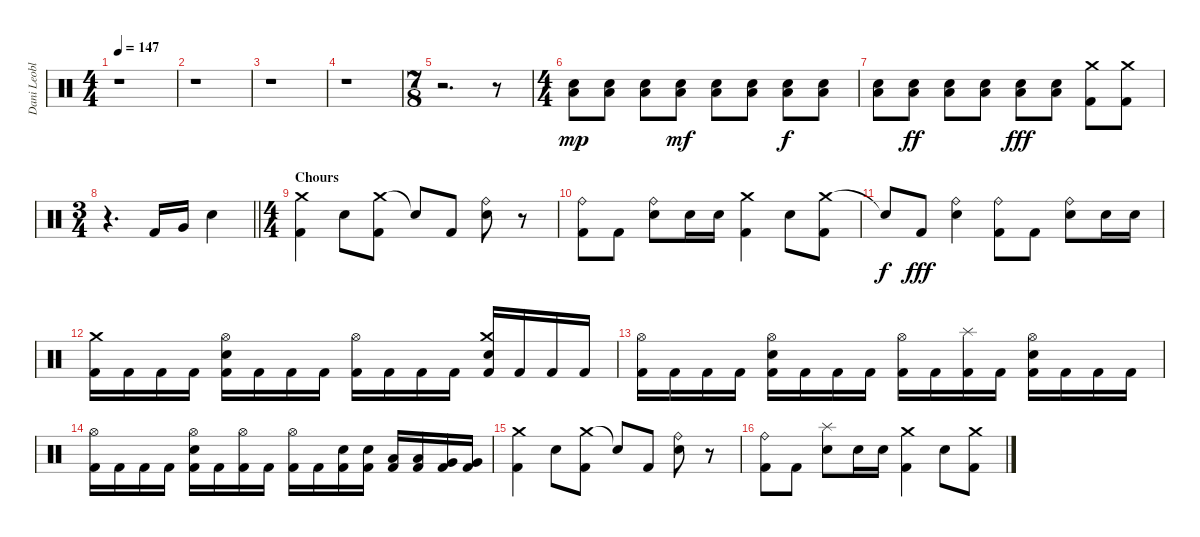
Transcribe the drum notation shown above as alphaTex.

\track ("Dani Leoble" "Dani Leobl") {instrument percussion}
\staff {score}
\articulation defaults
\ts (4 4)
\tempo 147
\clef neutral
\ks c
r.1{dy fff} |
r.1 |
r.1 |
r.1 |
\ts (7 8)
r.2{d} r.8 |
\ts (4 4)
("Electric Snare (hit)" "Low Floor Tom (hit)").8{dy mp} ("Electric Snare (hit)" "Low Floor Tom (hit)").8 ("Electric Snare (hit)" "Low Floor Tom (hit)").8 ("Electric Snare (hit)" "Low Floor Tom (hit)").8{dy mf} ("Electric Snare (hit)" "Low Floor Tom (hit)").8 ("Electric Snare (hit)" "Low Floor Tom (hit)").8 ("Electric Snare (hit)" "Low Floor Tom (hit)").8{dy f} ("Electric Snare (hit)" "Low Floor Tom (hit)").8 |
("Electric Snare (hit)" "Low Floor Tom (hit)").8 ("Electric Snare (hit)" "Low Floor Tom (hit)").8{dy ff} ("Electric Snare (hit)" "Low Floor Tom (hit)").8 ("Electric Snare (hit)" "Low Floor Tom (hit)").8 ("Electric Snare (hit)" "Low Floor Tom (hit)").8{dy fff} ("Electric Snare (hit)" "Low Floor Tom (hit)").8 ("Crash medium (hit)" "Kick (hit) 2").8 ("Crash medium (hit)" "Kick (hit) 2").8 |
\ts (3 4)
\barLineRight lightlight
r.4{d} "Kick (hit) 2".16 "Very Low Tom (hit)".16 "Electric Snare (hit)".4 |
\ts (4 4)
\section ("" "Chours")
("Crash medium (hit)" "Kick (hit) 2").4 "Electric Snare (hit)".8 ("Crash medium (hit)" "Kick (hit) 2").8 "Snare (hit)"{t}.8 "Kick (hit) 2".8 ("Ride (bell)" "Electric Snare (hit)").8 r.8 |
("Ride (bell)" "Kick (hit) 2").8 "Kick (hit) 2".8 ("Ride (bell)" "Electric Snare (hit)").8 "Electric Snare (hit)".16 "Electric Snare (hit)".16 ("Crash medium (hit)" "Kick (hit) 2").4 "Electric Snare (hit)".8 ("Crash medium (hit)" "Kick (hit) 2").8 |
"Snare (hit)"{t}.8{dy f} "Kick (hit) 2".8{dy fff} ("Ride (bell)" "Electric Snare (hit)").4 ("Ride (bell)" "Kick (hit) 2").8 "Kick (hit) 2".8 ("Ride (bell)" "Electric Snare (hit)").8 "Electric Snare (hit)".16 "Electric Snare (hit)".16 |
("Crash medium (hit)" "Kick (hit) 2").16 "Kick (hit) 2".16 "Kick (hit) 2".16 "Kick (hit) 2".16 ("Hi-Hat (open)" "Electric Snare (hit)" "Kick (hit) 2").16 "Kick (hit) 2".16 "Kick (hit) 2".16 "Kick (hit) 2".16 ("Hi-Hat (open)" "Kick (hit) 2").16 "Kick (hit) 2".16 "Kick (hit) 2".16 "Kick (hit) 2".16 ("Crash medium (hit)" "Electric Snare (hit)" "Kick (hit) 2").16 "Kick (hit) 2".16 "Kick (hit) 2".16 "Kick (hit) 2".16 |
("Hi-Hat (open)" "Kick (hit) 2").16 "Kick (hit) 2".16 "Kick (hit) 2".16 "Kick (hit) 2".16 ("Hi-Hat (open)" "Electric Snare (hit)" "Kick (hit) 2").16 "Kick (hit) 2".16 "Kick (hit) 2".16 "Kick (hit) 2".16 ("Hi-Hat (open)" "Kick (hit) 2").16 "Kick (hit) 2".16 ("Splash (hit)" "Kick (hit) 2").16 "Kick (hit) 2".16 ("Hi-Hat (open)" "Electric Snare (hit)" "Kick (hit) 2").16 "Kick (hit) 2".16 "Kick (hit) 2".16 "Kick (hit) 2".16 |
("Hi-Hat (open)" "Kick (hit) 2").16 "Kick (hit) 2".16 "Kick (hit) 2".16 "Kick (hit) 2".16 ("Hi-Hat (open)" "Electric Snare (hit)" "Kick (hit) 2").16 "Kick (hit) 2".16 ("Hi-Hat (open)" "Kick (hit) 2").16 "Kick (hit) 2".16 ("Hi-Hat (open)" "Kick (hit) 2").16 "Kick (hit) 2".16 ("Electric Snare (hit)" "Kick (hit) 2").16 ("Electric Snare (hit)" "Kick (hit) 2").16 ("Low Tom (hit)" "Kick (hit) 2").16 ("Low Tom (hit)" "Kick (hit) 2").16 ("Very Low Tom (hit)" "Kick (hit) 2").16 ("Very Low Tom (hit)" "Kick (hit) 2").16 |
("Crash medium (hit)" "Kick (hit) 2").4 "Electric Snare (hit)".8 ("Crash medium (hit)" "Kick (hit) 2").8 "Snare (hit)"{t}.8 "Kick (hit) 2".8 ("Ride (bell)" "Electric Snare (hit)").8 r.8 |
("Ride (bell)" "Kick (hit) 2").8 "Kick (hit) 2".8 ("Splash (hit)" "Electric Snare (hit)").8 "Electric Snare (hit)".16 "Electric Snare (hit)".16 ("Crash medium (hit)" "Kick (hit) 2").4 "Electric Snare (hit)".8 ("Crash medium (hit)" "Kick (hit) 2").8
